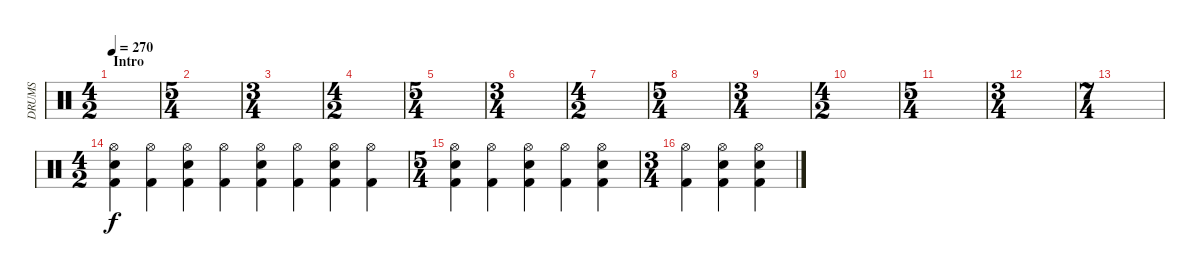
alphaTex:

\track ("DRUMS" "DRUMS") {instrument percussion}
\staff {score}
\articulation defaults
\ts (4 2)
\section ("" "Intro")
\tempo 270
\clef neutral
\ks c
|
\ts (5 4)
|
\ts (3 4)
|
\ts (4 2)
|
\ts (5 4)
|
\ts (3 4)
|
\ts (4 2)
|
\ts (5 4)
|
\ts (3 4)
|
\ts (4 2)
|
\ts (5 4)
|
\ts (3 4)
|
\ts (7 4)
|
\ts (4 2)
("Hi-Hat (open)" "Snare (hit) 2" "Kick (hit) 2").4 ("Hi-Hat (open)" "Kick (hit) 2").4 ("Hi-Hat (open)" "Snare (hit) 2" "Kick (hit) 2").4 ("Hi-Hat (open)" "Kick (hit) 2").4 ("Hi-Hat (open)" "Snare (hit) 2" "Kick (hit) 2").4 ("Hi-Hat (open)" "Kick (hit) 2").4 ("Hi-Hat (open)" "Snare (hit) 2" "Kick (hit) 2").4 ("Hi-Hat (open)" "Kick (hit) 2").4 |
\ts (5 4)
("Hi-Hat (open)" "Snare (hit) 2" "Kick (hit) 2").4 ("Hi-Hat (open)" "Kick (hit) 2").4 ("Hi-Hat (open)" "Snare (hit) 2" "Kick (hit) 2").4 ("Hi-Hat (open)" "Kick (hit) 2").4 ("Hi-Hat (open)" "Snare (hit) 2" "Kick (hit) 2").4 |
\ts (3 4)
("Hi-Hat (open)" "Kick (hit) 2").4 ("Hi-Hat (open)" "Snare (hit) 2" "Kick (hit) 2").4 ("Hi-Hat (open)" "Snare (hit) 2" "Kick (hit) 2").4
